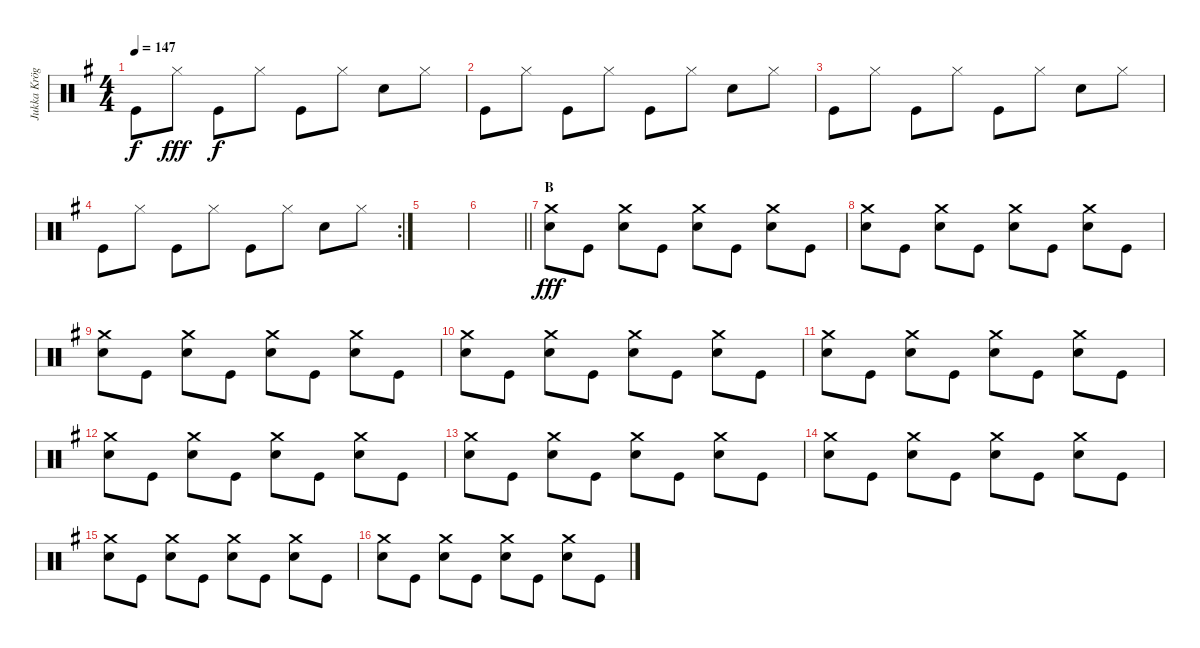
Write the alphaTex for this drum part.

\track ("Jukka Kröger" "Jukka Krög") {instrument percussion}
\staff {score}
\articulation defaults
\ts (4 4)
\tempo 147
\clef neutral
\ks eminor "Kick (hit)".8{dy f} "Hi-Hat (closed)".8{dy fff} "Kick (hit)".8{dy f} "Hi-Hat (closed)".8 "Kick (hit)".8 "Hi-Hat (closed)".8 "Snare (hit) 2".8 "Hi-Hat (closed)".8
|
"Kick (hit)".8 "Hi-Hat (closed)".8 "Kick (hit)".8 "Hi-Hat (closed)".8 "Kick (hit)".8 "Hi-Hat (closed)".8 "Snare (hit) 2".8 "Hi-Hat (closed)".8 |
"Kick (hit)".8 "Hi-Hat (closed)".8 "Kick (hit)".8 "Hi-Hat (closed)".8 "Kick (hit)".8 "Hi-Hat (closed)".8 "Snare (hit) 2".8 "Hi-Hat (closed)".8 |
\rc 2 "Kick (hit)".8 "Hi-Hat (closed)".8 "Kick (hit)".8 "Hi-Hat (closed)".8 "Kick (hit)".8 "Hi-Hat (closed)".8 "Snare (hit) 2".8 "Hi-Hat (closed)".8
|
|
\barLineRight lightlight
|
\section ("" "B")
("Crash medium (hit)" "Snare (hit) 2").8{dy fff} "Kick (hit)".8 ("Crash medium (hit)" "Snare (hit) 2").8 "Kick (hit)".8 ("Crash medium (hit)" "Snare (hit) 2").8 "Kick (hit)".8 ("Crash medium (hit)" "Snare (hit) 2").8 "Kick (hit)".8 |
("Crash medium (hit)" "Snare (hit) 2").8 "Kick (hit)".8 ("Crash medium (hit)" "Snare (hit) 2").8 "Kick (hit)".8 ("Crash medium (hit)" "Snare (hit) 2").8 "Kick (hit)".8 ("Crash medium (hit)" "Snare (hit) 2").8 "Kick (hit)".8 |
("Crash medium (hit)" "Snare (hit) 2").8 "Kick (hit)".8 ("Crash medium (hit)" "Snare (hit) 2").8 "Kick (hit)".8 ("Crash medium (hit)" "Snare (hit) 2").8 "Kick (hit)".8 ("Crash medium (hit)" "Snare (hit) 2").8 "Kick (hit)".8 |
("Crash medium (hit)" "Snare (hit) 2").8 "Kick (hit)".8 ("Crash medium (hit)" "Snare (hit) 2").8 "Kick (hit)".8 ("Crash medium (hit)" "Snare (hit) 2").8 "Kick (hit)".8 ("Crash medium (hit)" "Snare (hit) 2").8 "Kick (hit)".8 |
("Crash medium (hit)" "Snare (hit) 2").8 "Kick (hit)".8 ("Crash medium (hit)" "Snare (hit) 2").8 "Kick (hit)".8 ("Crash medium (hit)" "Snare (hit) 2").8 "Kick (hit)".8 ("Crash medium (hit)" "Snare (hit) 2").8 "Kick (hit)".8 |
("Crash medium (hit)" "Snare (hit) 2").8 "Kick (hit)".8 ("Crash medium (hit)" "Snare (hit) 2").8 "Kick (hit)".8 ("Crash medium (hit)" "Snare (hit) 2").8 "Kick (hit)".8 ("Crash medium (hit)" "Snare (hit) 2").8 "Kick (hit)".8 |
("Crash medium (hit)" "Snare (hit) 2").8 "Kick (hit)".8 ("Crash medium (hit)" "Snare (hit) 2").8 "Kick (hit)".8 ("Crash medium (hit)" "Snare (hit) 2").8 "Kick (hit)".8 ("Crash medium (hit)" "Snare (hit) 2").8 "Kick (hit)".8 |
("Crash medium (hit)" "Snare (hit) 2").8 "Kick (hit)".8 ("Crash medium (hit)" "Snare (hit) 2").8 "Kick (hit)".8 ("Crash medium (hit)" "Snare (hit) 2").8 "Kick (hit)".8 ("Crash medium (hit)" "Snare (hit) 2").8 "Kick (hit)".8 |
("Crash medium (hit)" "Snare (hit) 2").8 "Kick (hit)".8 ("Crash medium (hit)" "Snare (hit) 2").8 "Kick (hit)".8 ("Crash medium (hit)" "Snare (hit) 2").8 "Kick (hit)".8 ("Crash medium (hit)" "Snare (hit) 2").8 "Kick (hit)".8 |
("Crash medium (hit)" "Snare (hit) 2").8 "Kick (hit)".8 ("Crash medium (hit)" "Snare (hit) 2").8 "Kick (hit)".8 ("Crash medium (hit)" "Snare (hit) 2").8 "Kick (hit)".8 ("Crash medium (hit)" "Snare (hit) 2").8 "Kick (hit)".8
